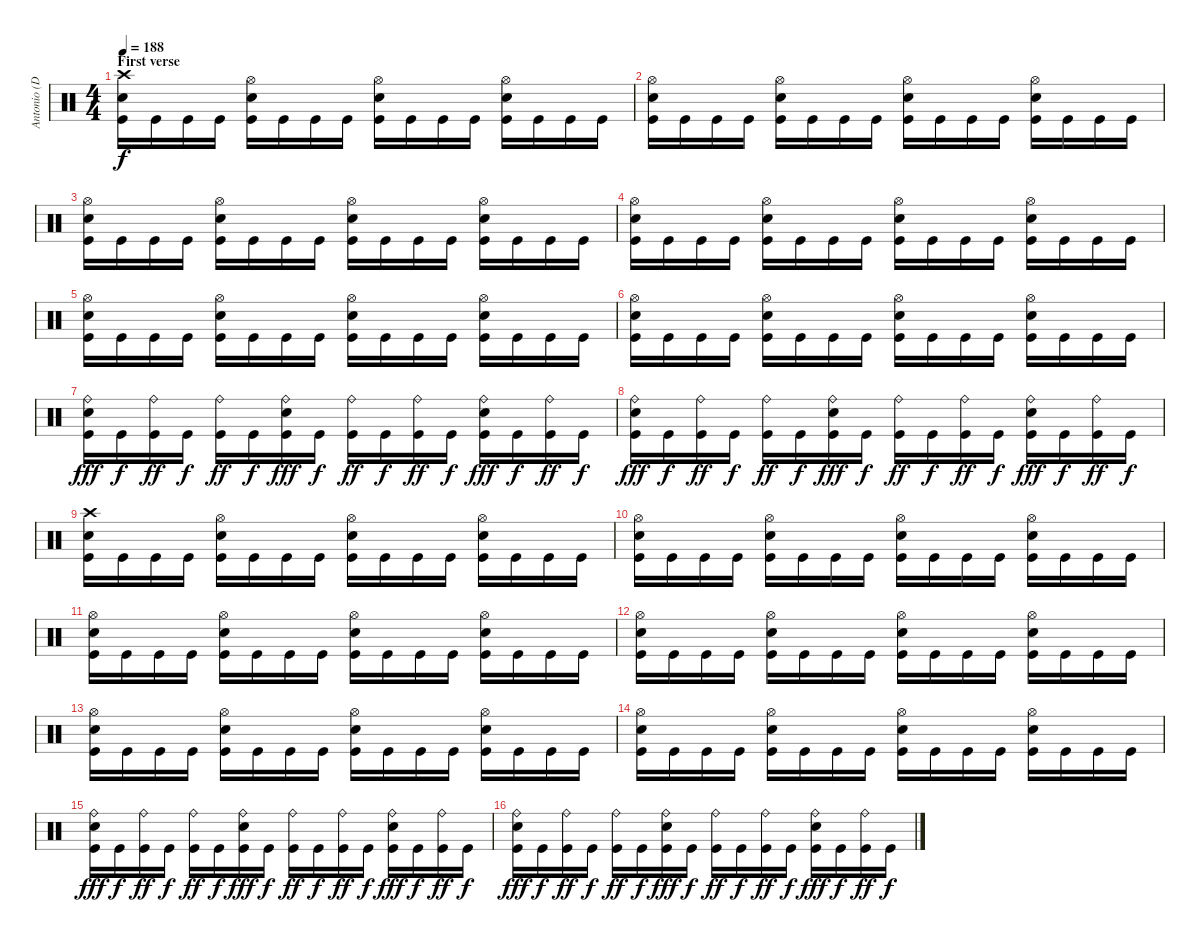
\track ("Antonio (Drums)" "Antonio (D") {instrument percussion}
\staff {score}
\articulation defaults
\ts (4 4)
\section ("" "First verse")
\tempo 188
\clef neutral
\ks c
("Crash high (hit)" "Electric Snare (hit)" "Kick (hit)").16{dy f} "Kick (hit)".16 "Kick (hit)".16 "Kick (hit)".16 ("Hi-Hat (open)" "Electric Snare (hit)" "Kick (hit)").16 "Kick (hit)".16 "Kick (hit)".16 "Kick (hit)".16 ("Hi-Hat (open)" "Electric Snare (hit)" "Kick (hit)").16 "Kick (hit)".16 "Kick (hit)".16 "Kick (hit)".16 ("Hi-Hat (open)" "Electric Snare (hit)" "Kick (hit)").16 "Kick (hit)".16 "Kick (hit)".16 "Kick (hit)".16 |
("Hi-Hat (open)" "Electric Snare (hit)" "Kick (hit)").16 "Kick (hit)".16 "Kick (hit)".16 "Kick (hit)".16 ("Hi-Hat (open)" "Electric Snare (hit)" "Kick (hit)").16 "Kick (hit)".16 "Kick (hit)".16 "Kick (hit)".16 ("Hi-Hat (open)" "Electric Snare (hit)" "Kick (hit)").16 "Kick (hit)".16 "Kick (hit)".16 "Kick (hit)".16 ("Hi-Hat (open)" "Electric Snare (hit)" "Kick (hit)").16 "Kick (hit)".16 "Kick (hit)".16 "Kick (hit)".16 |
("Hi-Hat (open)" "Electric Snare (hit)" "Kick (hit)").16 "Kick (hit)".16 "Kick (hit)".16 "Kick (hit)".16 ("Hi-Hat (open)" "Electric Snare (hit)" "Kick (hit)").16 "Kick (hit)".16 "Kick (hit)".16 "Kick (hit)".16 ("Hi-Hat (open)" "Electric Snare (hit)" "Kick (hit)").16 "Kick (hit)".16 "Kick (hit)".16 "Kick (hit)".16 ("Hi-Hat (open)" "Electric Snare (hit)" "Kick (hit)").16 "Kick (hit)".16 "Kick (hit)".16 "Kick (hit)".16 |
("Hi-Hat (open)" "Electric Snare (hit)" "Kick (hit)").16 "Kick (hit)".16 "Kick (hit)".16 "Kick (hit)".16 ("Hi-Hat (open)" "Electric Snare (hit)" "Kick (hit)").16 "Kick (hit)".16 "Kick (hit)".16 "Kick (hit)".16 ("Hi-Hat (open)" "Electric Snare (hit)" "Kick (hit)").16 "Kick (hit)".16 "Kick (hit)".16 "Kick (hit)".16 ("Hi-Hat (open)" "Electric Snare (hit)" "Kick (hit)").16 "Kick (hit)".16 "Kick (hit)".16 "Kick (hit)".16 |
("Hi-Hat (open)" "Electric Snare (hit)" "Kick (hit)").16 "Kick (hit)".16 "Kick (hit)".16 "Kick (hit)".16 ("Hi-Hat (open)" "Electric Snare (hit)" "Kick (hit)").16 "Kick (hit)".16 "Kick (hit)".16 "Kick (hit)".16 ("Hi-Hat (open)" "Electric Snare (hit)" "Kick (hit)").16 "Kick (hit)".16 "Kick (hit)".16 "Kick (hit)".16 ("Hi-Hat (open)" "Electric Snare (hit)" "Kick (hit)").16 "Kick (hit)".16 "Kick (hit)".16 "Kick (hit)".16 |
("Hi-Hat (open)" "Electric Snare (hit)" "Kick (hit)").16 "Kick (hit)".16 "Kick (hit)".16 "Kick (hit)".16 ("Hi-Hat (open)" "Electric Snare (hit)" "Kick (hit)").16 "Kick (hit)".16 "Kick (hit)".16 "Kick (hit)".16 ("Hi-Hat (open)" "Electric Snare (hit)" "Kick (hit)").16 "Kick (hit)".16 "Kick (hit)".16 "Kick (hit)".16 ("Hi-Hat (open)" "Electric Snare (hit)" "Kick (hit)").16 "Kick (hit)".16 "Kick (hit)".16 "Kick (hit)".16 |
("Ride (bell)" "Electric Snare (hit)" "Kick (hit)").16{dy fff} "Kick (hit)".16{dy f} ("Ride (bell)" "Kick (hit)").16{dy ff} "Kick (hit)".16{dy f} ("Ride (bell)" "Kick (hit)").16{dy ff} "Kick (hit)".16{dy f} ("Ride (bell)" "Electric Snare (hit)" "Kick (hit)").16{dy fff} "Kick (hit)".16{dy f} ("Ride (bell)" "Kick (hit)").16{dy ff} "Kick (hit)".16{dy f} ("Ride (bell)" "Kick (hit)").16{dy ff} "Kick (hit)".16{dy f} ("Ride (bell)" "Electric Snare (hit)" "Kick (hit)").16{dy fff} "Kick (hit)".16{dy f} ("Ride (bell)" "Kick (hit)").16{dy ff} "Kick (hit)".16{dy f} |
("Ride (bell)" "Electric Snare (hit)" "Kick (hit)").16{dy fff} "Kick (hit)".16{dy f} ("Ride (bell)" "Kick (hit)").16{dy ff} "Kick (hit)".16{dy f} ("Ride (bell)" "Kick (hit)").16{dy ff} "Kick (hit)".16{dy f} ("Ride (bell)" "Electric Snare (hit)" "Kick (hit)").16{dy fff} "Kick (hit)".16{dy f} ("Ride (bell)" "Kick (hit)").16{dy ff} "Kick (hit)".16{dy f} ("Ride (bell)" "Kick (hit)").16{dy ff} "Kick (hit)".16{dy f} ("Ride (bell)" "Electric Snare (hit)" "Kick (hit)").16{dy fff} "Kick (hit)".16{dy f} ("Ride (bell)" "Kick (hit)").16{dy ff} "Kick (hit)".16{dy f} |
("Crash high (hit)" "Electric Snare (hit)" "Kick (hit)").16 "Kick (hit)".16 "Kick (hit)".16 "Kick (hit)".16 ("Hi-Hat (open)" "Electric Snare (hit)" "Kick (hit)").16 "Kick (hit)".16 "Kick (hit)".16 "Kick (hit)".16 ("Hi-Hat (open)" "Electric Snare (hit)" "Kick (hit)").16 "Kick (hit)".16 "Kick (hit)".16 "Kick (hit)".16 ("Hi-Hat (open)" "Electric Snare (hit)" "Kick (hit)").16 "Kick (hit)".16 "Kick (hit)".16 "Kick (hit)".16 |
("Hi-Hat (open)" "Electric Snare (hit)" "Kick (hit)").16 "Kick (hit)".16 "Kick (hit)".16 "Kick (hit)".16 ("Hi-Hat (open)" "Electric Snare (hit)" "Kick (hit)").16 "Kick (hit)".16 "Kick (hit)".16 "Kick (hit)".16 ("Hi-Hat (open)" "Electric Snare (hit)" "Kick (hit)").16 "Kick (hit)".16 "Kick (hit)".16 "Kick (hit)".16 ("Hi-Hat (open)" "Electric Snare (hit)" "Kick (hit)").16 "Kick (hit)".16 "Kick (hit)".16 "Kick (hit)".16 |
("Hi-Hat (open)" "Electric Snare (hit)" "Kick (hit)").16 "Kick (hit)".16 "Kick (hit)".16 "Kick (hit)".16 ("Hi-Hat (open)" "Electric Snare (hit)" "Kick (hit)").16 "Kick (hit)".16 "Kick (hit)".16 "Kick (hit)".16 ("Hi-Hat (open)" "Electric Snare (hit)" "Kick (hit)").16 "Kick (hit)".16 "Kick (hit)".16 "Kick (hit)".16 ("Hi-Hat (open)" "Electric Snare (hit)" "Kick (hit)").16 "Kick (hit)".16 "Kick (hit)".16 "Kick (hit)".16 |
("Hi-Hat (open)" "Electric Snare (hit)" "Kick (hit)").16 "Kick (hit)".16 "Kick (hit)".16 "Kick (hit)".16 ("Hi-Hat (open)" "Electric Snare (hit)" "Kick (hit)").16 "Kick (hit)".16 "Kick (hit)".16 "Kick (hit)".16 ("Hi-Hat (open)" "Electric Snare (hit)" "Kick (hit)").16 "Kick (hit)".16 "Kick (hit)".16 "Kick (hit)".16 ("Hi-Hat (open)" "Electric Snare (hit)" "Kick (hit)").16 "Kick (hit)".16 "Kick (hit)".16 "Kick (hit)".16 |
("Hi-Hat (open)" "Electric Snare (hit)" "Kick (hit)").16 "Kick (hit)".16 "Kick (hit)".16 "Kick (hit)".16 ("Hi-Hat (open)" "Electric Snare (hit)" "Kick (hit)").16 "Kick (hit)".16 "Kick (hit)".16 "Kick (hit)".16 ("Hi-Hat (open)" "Electric Snare (hit)" "Kick (hit)").16 "Kick (hit)".16 "Kick (hit)".16 "Kick (hit)".16 ("Hi-Hat (open)" "Electric Snare (hit)" "Kick (hit)").16 "Kick (hit)".16 "Kick (hit)".16 "Kick (hit)".16 |
("Hi-Hat (open)" "Electric Snare (hit)" "Kick (hit)").16 "Kick (hit)".16 "Kick (hit)".16 "Kick (hit)".16 ("Hi-Hat (open)" "Electric Snare (hit)" "Kick (hit)").16 "Kick (hit)".16 "Kick (hit)".16 "Kick (hit)".16 ("Hi-Hat (open)" "Electric Snare (hit)" "Kick (hit)").16 "Kick (hit)".16 "Kick (hit)".16 "Kick (hit)".16 ("Hi-Hat (open)" "Electric Snare (hit)" "Kick (hit)").16 "Kick (hit)".16 "Kick (hit)".16 "Kick (hit)".16 |
("Ride (bell)" "Electric Snare (hit)" "Kick (hit)").16{dy fff} "Kick (hit)".16{dy f} ("Ride (bell)" "Kick (hit)").16{dy ff} "Kick (hit)".16{dy f} ("Ride (bell)" "Kick (hit)").16{dy ff} "Kick (hit)".16{dy f} ("Ride (bell)" "Electric Snare (hit)" "Kick (hit)").16{dy fff} "Kick (hit)".16{dy f} ("Ride (bell)" "Kick (hit)").16{dy ff} "Kick (hit)".16{dy f} ("Ride (bell)" "Kick (hit)").16{dy ff} "Kick (hit)".16{dy f} ("Ride (bell)" "Electric Snare (hit)" "Kick (hit)").16{dy fff} "Kick (hit)".16{dy f} ("Ride (bell)" "Kick (hit)").16{dy ff} "Kick (hit)".16{dy f} |
("Ride (bell)" "Electric Snare (hit)" "Kick (hit)").16{dy fff} "Kick (hit)".16{dy f} ("Ride (bell)" "Kick (hit)").16{dy ff} "Kick (hit)".16{dy f} ("Ride (bell)" "Kick (hit)").16{dy ff} "Kick (hit)".16{dy f} ("Ride (bell)" "Electric Snare (hit)" "Kick (hit)").16{dy fff} "Kick (hit)".16{dy f} ("Ride (bell)" "Kick (hit)").16{dy ff} "Kick (hit)".16{dy f} ("Ride (bell)" "Kick (hit)").16{dy ff} "Kick (hit)".16{dy f} ("Ride (bell)" "Electric Snare (hit)" "Kick (hit)").16{dy fff} "Kick (hit)".16{dy f} ("Ride (bell)" "Kick (hit)").16{dy ff} "Kick (hit)".16{dy f}
